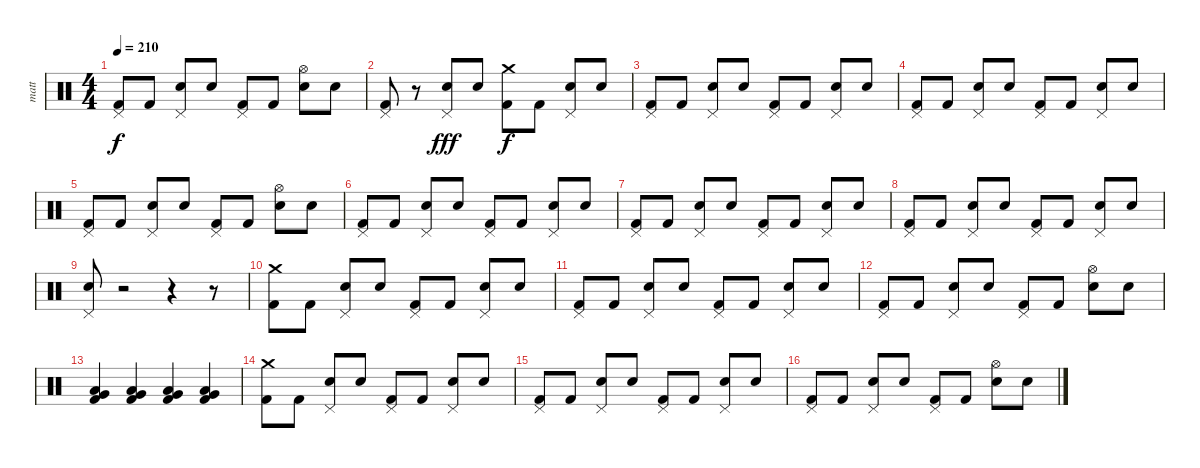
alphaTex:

\track ("matt" "matt") {instrument percussion}
\staff {score}
\articulation defaults
\ts (4 4)
\tempo 210
\clef neutral
\ks c
("Pedal Hi-Hat (hit)" "Kick (hit) 2").8{dy f} "Kick (hit) 2".8 ("Pedal Hi-Hat (hit)" "Electric Snare (hit)").8 "Electric Snare (hit)".8 ("Pedal Hi-Hat (hit)" "Kick (hit) 2").8 "Kick (hit) 2".8 ("Hi-Hat (open)" "Electric Snare (hit)").8 "Electric Snare (hit)".8 |
("Pedal Hi-Hat (hit)" "Kick (hit) 2").8 r.8 ("Pedal Hi-Hat (hit)" "Electric Snare (hit)").8{dy fff} "Electric Snare (hit)".8 ("Crash medium (hit)" "Kick (hit) 2").8{dy f} "Kick (hit) 2".8 ("Pedal Hi-Hat (hit)" "Electric Snare (hit)").8 "Electric Snare (hit)".8 |
("Pedal Hi-Hat (hit)" "Kick (hit) 2").8 "Kick (hit) 2".8 ("Pedal Hi-Hat (hit)" "Electric Snare (hit)").8 "Electric Snare (hit)".8 ("Pedal Hi-Hat (hit)" "Kick (hit) 2").8 "Kick (hit) 2".8 ("Pedal Hi-Hat (hit)" "Electric Snare (hit)").8 "Electric Snare (hit)".8 |
("Pedal Hi-Hat (hit)" "Kick (hit) 2").8 "Kick (hit) 2".8 ("Pedal Hi-Hat (hit)" "Electric Snare (hit)").8 "Electric Snare (hit)".8 ("Pedal Hi-Hat (hit)" "Kick (hit) 2").8 "Kick (hit) 2".8 ("Pedal Hi-Hat (hit)" "Electric Snare (hit)").8 "Electric Snare (hit)".8 |
("Pedal Hi-Hat (hit)" "Kick (hit) 2").8 "Kick (hit) 2".8 ("Pedal Hi-Hat (hit)" "Electric Snare (hit)").8 "Electric Snare (hit)".8 ("Pedal Hi-Hat (hit)" "Kick (hit) 2").8 "Kick (hit) 2".8 ("Hi-Hat (open)" "Electric Snare (hit)").8 "Electric Snare (hit)".8 |
("Pedal Hi-Hat (hit)" "Kick (hit) 2").8 "Kick (hit) 2".8 ("Pedal Hi-Hat (hit)" "Electric Snare (hit)").8 "Electric Snare (hit)".8 ("Pedal Hi-Hat (hit)" "Kick (hit) 2").8 "Kick (hit) 2".8 ("Pedal Hi-Hat (hit)" "Electric Snare (hit)").8 "Electric Snare (hit)".8 |
("Pedal Hi-Hat (hit)" "Kick (hit) 2").8 "Kick (hit) 2".8 ("Pedal Hi-Hat (hit)" "Electric Snare (hit)").8 "Electric Snare (hit)".8 ("Pedal Hi-Hat (hit)" "Kick (hit) 2").8 "Kick (hit) 2".8 ("Pedal Hi-Hat (hit)" "Electric Snare (hit)").8 "Electric Snare (hit)".8 |
("Pedal Hi-Hat (hit)" "Kick (hit) 2").8 "Kick (hit) 2".8 ("Pedal Hi-Hat (hit)" "Electric Snare (hit)").8 "Electric Snare (hit)".8 ("Pedal Hi-Hat (hit)" "Kick (hit) 2").8 "Kick (hit) 2".8 ("Pedal Hi-Hat (hit)" "Electric Snare (hit)").8 "Electric Snare (hit)".8 |
("Pedal Hi-Hat (hit)" "Electric Snare (hit)").8 r.2 r.4 r.8 |
("Crash medium (hit)" "Kick (hit) 2").8 "Kick (hit) 2".8 ("Pedal Hi-Hat (hit)" "Electric Snare (hit)").8 "Electric Snare (hit)".8 ("Pedal Hi-Hat (hit)" "Kick (hit) 2").8 "Kick (hit) 2".8 ("Pedal Hi-Hat (hit)" "Electric Snare (hit)").8 "Electric Snare (hit)".8 |
("Pedal Hi-Hat (hit)" "Kick (hit) 2").8 "Kick (hit) 2".8 ("Pedal Hi-Hat (hit)" "Electric Snare (hit)").8 "Electric Snare (hit)".8 ("Pedal Hi-Hat (hit)" "Kick (hit) 2").8 "Kick (hit) 2".8 ("Pedal Hi-Hat (hit)" "Electric Snare (hit)").8 "Electric Snare (hit)".8 |
("Pedal Hi-Hat (hit)" "Kick (hit) 2").8 "Kick (hit) 2".8 ("Pedal Hi-Hat (hit)" "Electric Snare (hit)").8 "Electric Snare (hit)".8 ("Pedal Hi-Hat (hit)" "Kick (hit) 2").8 "Kick (hit) 2".8 ("Hi-Hat (open)" "Electric Snare (hit)").8 "Electric Snare (hit)".8 |
("Low Floor Tom (hit)" "Very Low Tom (hit)" "Kick (hit) 2").4 ("Low Floor Tom (hit)" "Very Low Tom (hit)" "Kick (hit) 2").4 ("Low Floor Tom (hit)" "Very Low Tom (hit)" "Kick (hit) 2").4 ("Low Floor Tom (hit)" "Very Low Tom (hit)" "Kick (hit) 2").4 |
("Crash medium (hit)" "Kick (hit) 2").8 "Kick (hit) 2".8 ("Pedal Hi-Hat (hit)" "Electric Snare (hit)").8 "Electric Snare (hit)".8 ("Pedal Hi-Hat (hit)" "Kick (hit) 2").8 "Kick (hit) 2".8 ("Pedal Hi-Hat (hit)" "Electric Snare (hit)").8 "Electric Snare (hit)".8 |
("Pedal Hi-Hat (hit)" "Kick (hit) 2").8 "Kick (hit) 2".8 ("Pedal Hi-Hat (hit)" "Electric Snare (hit)").8 "Electric Snare (hit)".8 ("Pedal Hi-Hat (hit)" "Kick (hit) 2").8 "Kick (hit) 2".8 ("Pedal Hi-Hat (hit)" "Electric Snare (hit)").8 "Electric Snare (hit)".8 |
("Pedal Hi-Hat (hit)" "Kick (hit) 2").8 "Kick (hit) 2".8 ("Pedal Hi-Hat (hit)" "Electric Snare (hit)").8 "Electric Snare (hit)".8 ("Pedal Hi-Hat (hit)" "Kick (hit) 2").8 "Kick (hit) 2".8 ("Hi-Hat (open)" "Electric Snare (hit)").8 "Electric Snare (hit)".8
